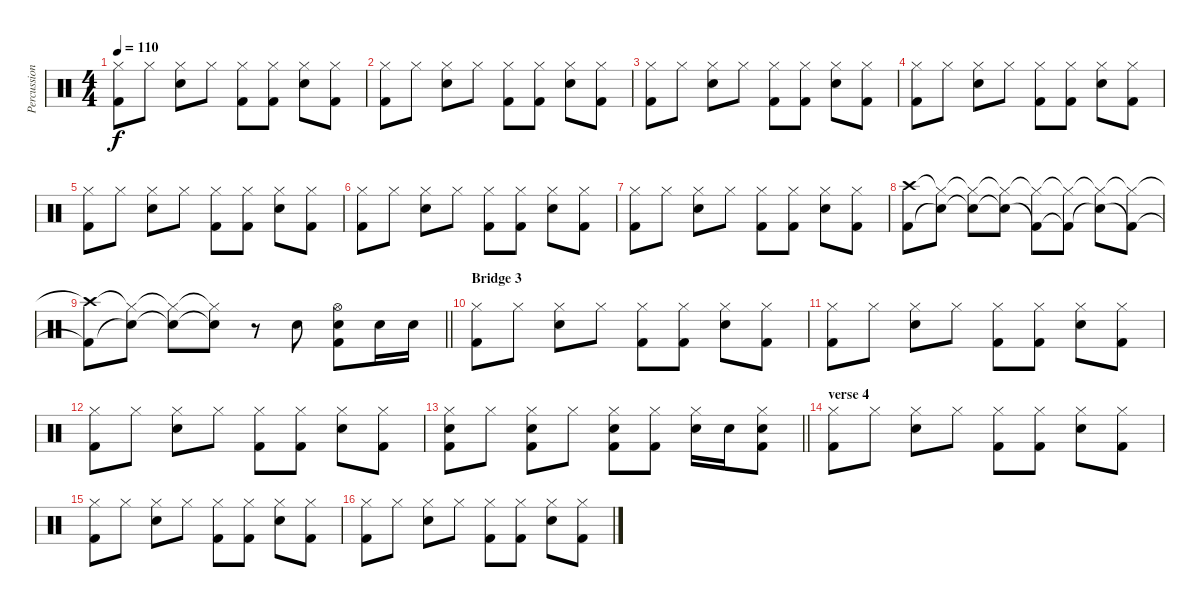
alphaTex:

\track ("Percussions" "Percussion") {instrument percussion}
\staff {score}
\articulation defaults
\ts (4 4)
\tempo 110
\clef neutral
\ks c
("Hi-Hat (closed)" "Kick (hit) 2").8{dy f} "Hi-Hat (closed)".8 ("Hi-Hat (closed)" "Electric Snare (hit)").8 "Hi-Hat (closed)".8 ("Hi-Hat (closed)" "Kick (hit) 2").8 ("Hi-Hat (closed)" "Kick (hit) 2").8 ("Hi-Hat (closed)" "Electric Snare (hit)").8 ("Hi-Hat (closed)" "Kick (hit) 2").8 |
("Hi-Hat (closed)" "Kick (hit) 2").8 "Hi-Hat (closed)".8 ("Hi-Hat (closed)" "Electric Snare (hit)").8 "Hi-Hat (closed)".8 ("Hi-Hat (closed)" "Kick (hit) 2").8 ("Hi-Hat (closed)" "Kick (hit) 2").8 ("Hi-Hat (closed)" "Electric Snare (hit)").8 ("Hi-Hat (closed)" "Kick (hit) 2").8 |
("Hi-Hat (closed)" "Kick (hit) 2").8 "Hi-Hat (closed)".8 ("Hi-Hat (closed)" "Electric Snare (hit)").8 "Hi-Hat (closed)".8 ("Hi-Hat (closed)" "Kick (hit) 2").8 ("Hi-Hat (closed)" "Kick (hit) 2").8 ("Hi-Hat (closed)" "Electric Snare (hit)").8 ("Hi-Hat (closed)" "Kick (hit) 2").8 |
("Hi-Hat (closed)" "Kick (hit) 2").8 "Hi-Hat (closed)".8 ("Hi-Hat (closed)" "Electric Snare (hit)").8 "Hi-Hat (closed)".8 ("Hi-Hat (closed)" "Kick (hit) 2").8 ("Hi-Hat (closed)" "Kick (hit) 2").8 ("Hi-Hat (closed)" "Electric Snare (hit)").8 ("Hi-Hat (closed)" "Kick (hit) 2").8 |
("Hi-Hat (closed)" "Kick (hit) 2").8 "Hi-Hat (closed)".8 ("Hi-Hat (closed)" "Electric Snare (hit)").8 "Hi-Hat (closed)".8 ("Hi-Hat (closed)" "Kick (hit) 2").8 ("Hi-Hat (closed)" "Kick (hit) 2").8 ("Hi-Hat (closed)" "Electric Snare (hit)").8 ("Hi-Hat (closed)" "Kick (hit) 2").8 |
("Hi-Hat (closed)" "Kick (hit) 2").8 "Hi-Hat (closed)".8 ("Hi-Hat (closed)" "Electric Snare (hit)").8 "Hi-Hat (closed)".8 ("Hi-Hat (closed)" "Kick (hit) 2").8 ("Hi-Hat (closed)" "Kick (hit) 2").8 ("Hi-Hat (closed)" "Electric Snare (hit)").8 ("Hi-Hat (closed)" "Kick (hit) 2").8 |
("Hi-Hat (closed)" "Kick (hit) 2").8 "Hi-Hat (closed)".8 ("Hi-Hat (closed)" "Electric Snare (hit)").8 "Hi-Hat (closed)".8 ("Hi-Hat (closed)" "Kick (hit) 2").8 ("Hi-Hat (closed)" "Kick (hit) 2").8 ("Hi-Hat (closed)" "Electric Snare (hit)").8 ("Hi-Hat (closed)" "Kick (hit) 2").8 |
("Crash high (hit)" "Kick (hit) 2").8 ("Hi-Hat (closed)"{t} "Snare (hit)"{t}).8 ("Hi-Hat (closed)"{t} "Snare (hit)"{t}).8 ("Hi-Hat (closed)"{t} "Snare (hit)"{t}).8 ("Hi-Hat (closed)"{t} "Kick (hit) 2"{t}).8 ("Hi-Hat (closed)"{t} "Kick (hit) 2"{t}).8 ("Hi-Hat (closed)"{t} "Snare (hit)"{t}).8 ("Hi-Hat (closed)"{t} "Kick (hit) 2"{t}).8 |
\barLineRight lightlight
("Crash high (hit)"{t} "Kick (hit) 2"{t}).8 ("Hi-Hat (closed)"{t} "Snare (hit)"{t}).8 ("Hi-Hat (closed)"{t} "Snare (hit)"{t}).8 ("Hi-Hat (closed)"{t} "Snare (hit)"{t}).8 r.8 "Electric Snare (hit)".8 ("Hi-Hat (open)" "Electric Snare (hit)" "Kick (hit) 2").8 "Electric Snare (hit)".16 "Electric Snare (hit)".16 |
\section ("" "Bridge 3")
("Hi-Hat (closed)" "Kick (hit) 2").8 "Hi-Hat (closed)".8 ("Hi-Hat (closed)" "Electric Snare (hit)").8 "Hi-Hat (closed)".8 ("Hi-Hat (closed)" "Kick (hit) 2").8 ("Hi-Hat (closed)" "Kick (hit) 2").8 ("Hi-Hat (closed)" "Electric Snare (hit)").8 ("Hi-Hat (closed)" "Kick (hit) 2").8 |
("Hi-Hat (closed)" "Kick (hit) 2").8 "Hi-Hat (closed)".8 ("Hi-Hat (closed)" "Electric Snare (hit)").8 "Hi-Hat (closed)".8 ("Hi-Hat (closed)" "Kick (hit) 2").8 ("Hi-Hat (closed)" "Kick (hit) 2").8 ("Hi-Hat (closed)" "Electric Snare (hit)").8 ("Hi-Hat (closed)" "Kick (hit) 2").8 |
("Hi-Hat (closed)" "Kick (hit) 2").8 "Hi-Hat (closed)".8 ("Hi-Hat (closed)" "Electric Snare (hit)").8 "Hi-Hat (closed)".8 ("Hi-Hat (closed)" "Kick (hit) 2").8 ("Hi-Hat (closed)" "Kick (hit) 2").8 ("Hi-Hat (closed)" "Electric Snare (hit)").8 ("Hi-Hat (closed)" "Kick (hit) 2").8 |
\barLineRight lightlight
("Hi-Hat (closed)" "Electric Snare (hit)" "Kick (hit) 2").8 "Hi-Hat (closed)".8 ("Hi-Hat (closed)" "Electric Snare (hit)" "Kick (hit) 2").8 "Hi-Hat (closed)".8 ("Hi-Hat (closed)" "Electric Snare (hit)" "Kick (hit) 2").8 ("Hi-Hat (closed)" "Kick (hit) 2").8 ("Hi-Hat (closed)" "Electric Snare (hit)").16 "Electric Snare (hit)".16 ("Hi-Hat (closed)" "Electric Snare (hit)" "Kick (hit) 2").8 |
\section ("" "verse 4")
("Hi-Hat (closed)" "Kick (hit) 2").8 "Hi-Hat (closed)".8 ("Hi-Hat (closed)" "Electric Snare (hit)").8 "Hi-Hat (closed)".8 ("Hi-Hat (closed)" "Kick (hit) 2").8 ("Hi-Hat (closed)" "Kick (hit) 2").8 ("Hi-Hat (closed)" "Electric Snare (hit)").8 ("Hi-Hat (closed)" "Kick (hit) 2").8 |
("Hi-Hat (closed)" "Kick (hit) 2").8 "Hi-Hat (closed)".8 ("Hi-Hat (closed)" "Electric Snare (hit)").8 "Hi-Hat (closed)".8 ("Hi-Hat (closed)" "Kick (hit) 2").8 ("Hi-Hat (closed)" "Kick (hit) 2").8 ("Hi-Hat (closed)" "Electric Snare (hit)").8 ("Hi-Hat (closed)" "Kick (hit) 2").8 |
("Hi-Hat (closed)" "Kick (hit) 2").8 "Hi-Hat (closed)".8 ("Hi-Hat (closed)" "Electric Snare (hit)").8 "Hi-Hat (closed)".8 ("Hi-Hat (closed)" "Kick (hit) 2").8 ("Hi-Hat (closed)" "Kick (hit) 2").8 ("Hi-Hat (closed)" "Electric Snare (hit)").8 ("Hi-Hat (closed)" "Kick (hit) 2").8
